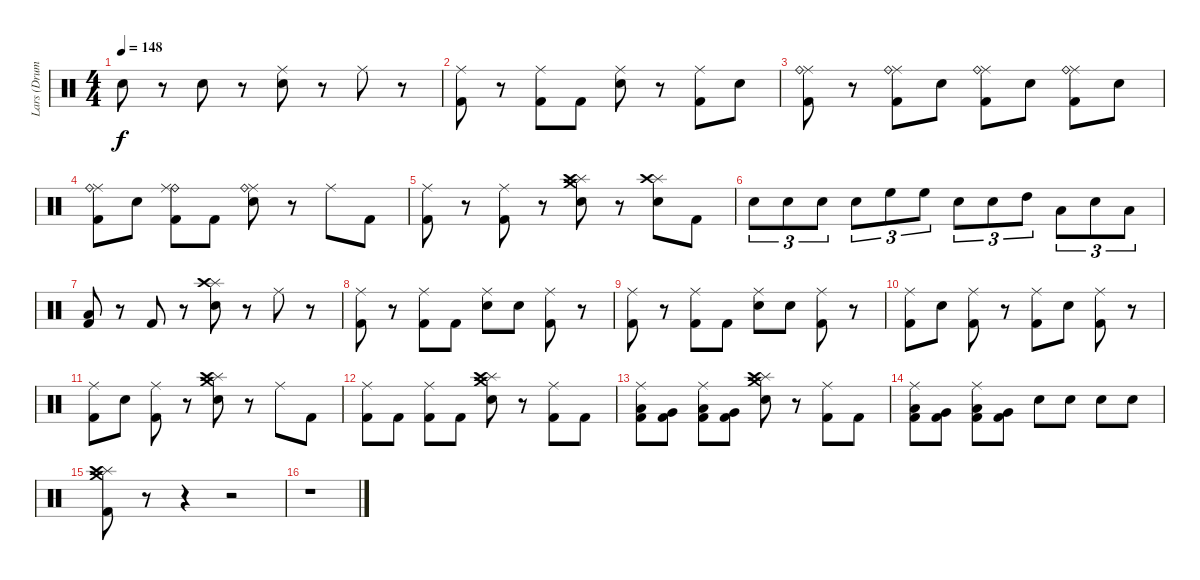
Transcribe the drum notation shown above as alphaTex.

\track ("Lars (Drums)" "Lars (Drum") {instrument percussion}
\staff {score}
\articulation defaults
\ts (4 4)
\tempo 148
\clef neutral
\ks c "Snare (hit) 2".8{dy f}
r.8 "Snare (hit) 2".8 r.8 ("Ride (middle)" "Snare (hit) 2").8 r.8 "Ride (middle)".8 r.8 |
("Ride (middle)" "Kick (hit) 2").8 r.8 ("Ride (middle)" "Kick (hit) 2").8 "Kick (hit) 2".8 ("Ride (middle)" "Snare (hit) 2").8 r.8 ("Ride (middle)" "Kick (hit) 2").8 "Snare (hit) 2".8 |
("Ride (middle)" "Ride (bell)" "Kick (hit) 2").8 r.8 ("Kick (hit) 2" "Ride (middle)" "Ride (bell)").8 "Snare (hit) 2".8 ("Kick (hit) 2" "Ride (middle)" "Ride (bell)").8 "Snare (hit) 2".8 ("Kick (hit) 2" "Ride (middle)" "Ride (bell)").8 "Snare (hit) 2".8 |
("Kick (hit) 2" "Ride (middle)" "Ride (bell)").8 "Snare (hit) 2".8 ("Kick (hit) 2" "Ride (bell)" "Ride (middle)").8 "Kick (hit) 2".8 ("Snare (hit) 2" "Ride (middle)" "Ride (bell)").8 r.8 "Ride (middle)".8 "Kick (hit) 2".8 |
("Ride (middle)" "Kick (hit) 2").8 r.8 ("Ride (middle)" "Kick (hit) 2").8 r.8 ("Crash medium (hit)" "Splash (hit)" "Crash high (hit)" "Snare (hit) 2").8 r.8 ("Splash (hit)" "Crash high (hit)" "Snare (hit) 2").8 "Kick (hit) 2".8 |
"Snare (hit) 2".8{tu (3 2)} "Snare (hit) 2".8{tu (3 2)} "Snare (hit) 2".8{tu (3 2)} "Snare (hit) 2".8{tu (3 2)} "High Floor Tom (hit)".8{tu (3 2)} "High Floor Tom (hit)".8{tu (3 2)} "Snare (hit) 2".8{tu (3 2)} "Snare (hit) 2".8{tu (3 2)} "High Tom (hit)".8{tu (3 2)} "Low Tom (hit)".8{tu (3 2)} "Snare (hit) 2".8{tu (3 2)} "Low Floor Tom (hit)".8{tu (3 2)} |
("Low Floor Tom (hit)" "Kick (hit) 2").8 r.8 "Kick (hit) 2".8 r.8 ("Splash (hit)" "Crash high (hit)" "Snare (hit) 2").8 r.8 "Ride (middle)".8 r.8 |
("Ride (middle)" "Kick (hit) 2").8 r.8 ("Ride (middle)" "Kick (hit) 2").8 "Kick (hit) 2".8 ("Ride (middle)" "Snare (hit) 2").8 "Snare (hit) 2".8 ("Ride (middle)" "Kick (hit) 2").8 r.8 |
("Ride (middle)" "Kick (hit) 2").8 r.8 ("Ride (middle)" "Kick (hit) 2").8 "Kick (hit) 2".8 ("Ride (middle)" "Snare (hit) 2").8 "Snare (hit) 2".8 ("Ride (middle)" "Kick (hit) 2").8 r.8 |
("Ride (middle)" "Kick (hit) 2").8 "Snare (hit) 2".8 ("Ride (middle)" "Kick (hit) 2").8 r.8 ("Ride (middle)" "Kick (hit) 2").8 "Snare (hit) 2".8 ("Ride (middle)" "Kick (hit) 2").8 r.8 |
("Ride (middle)" "Kick (hit) 2").8 "Snare (hit) 2".8 ("Ride (middle)" "Kick (hit) 2").8 r.8 ("Splash (hit)" "Crash medium (hit)" "Crash high (hit)" "Snare (hit) 2").8 r.8 "Ride (middle)".8 "Kick (hit) 2".8 |
("Ride (middle)" "Kick (hit) 2").8 "Kick (hit) 2".8 ("Ride (middle)" "Kick (hit) 2").8 "Kick (hit) 2".8 ("Crash medium (hit)" "Splash (hit)" "Crash high (hit)" "Snare (hit) 2").8 r.8 ("Kick (hit) 2" "Ride (middle)").8 "Kick (hit) 2".8 |
("Low Floor Tom (hit)" "Ride (middle)" "Kick (hit) 2").8 ("Very Low Tom (hit)" "Kick (hit) 2").8 ("Low Floor Tom (hit)" "Ride (middle)" "Kick (hit) 2").8 ("Very Low Tom (hit)" "Kick (hit) 2").8 ("Crash medium (hit)" "Splash (hit)" "Crash high (hit)" "Snare (hit) 2").8 r.8 ("Kick (hit) 2" "Ride (middle)").8 "Kick (hit) 2".8 |
("Low Floor Tom (hit)" "Ride (middle)" "Kick (hit) 2").8 ("Very Low Tom (hit)" "Kick (hit) 2").8 ("Low Floor Tom (hit)" "Ride (middle)" "Kick (hit) 2").8 ("Very Low Tom (hit)" "Kick (hit) 2").8 "Snare (hit) 2".8 "Snare (hit) 2".8 "Snare (hit) 2".8 "Snare (hit) 2".8 |
("Crash medium (hit)" "Splash (hit)" "Crash high (hit)" "Kick (hit) 2").8 r.8 r.4 r.2 |
r.1
